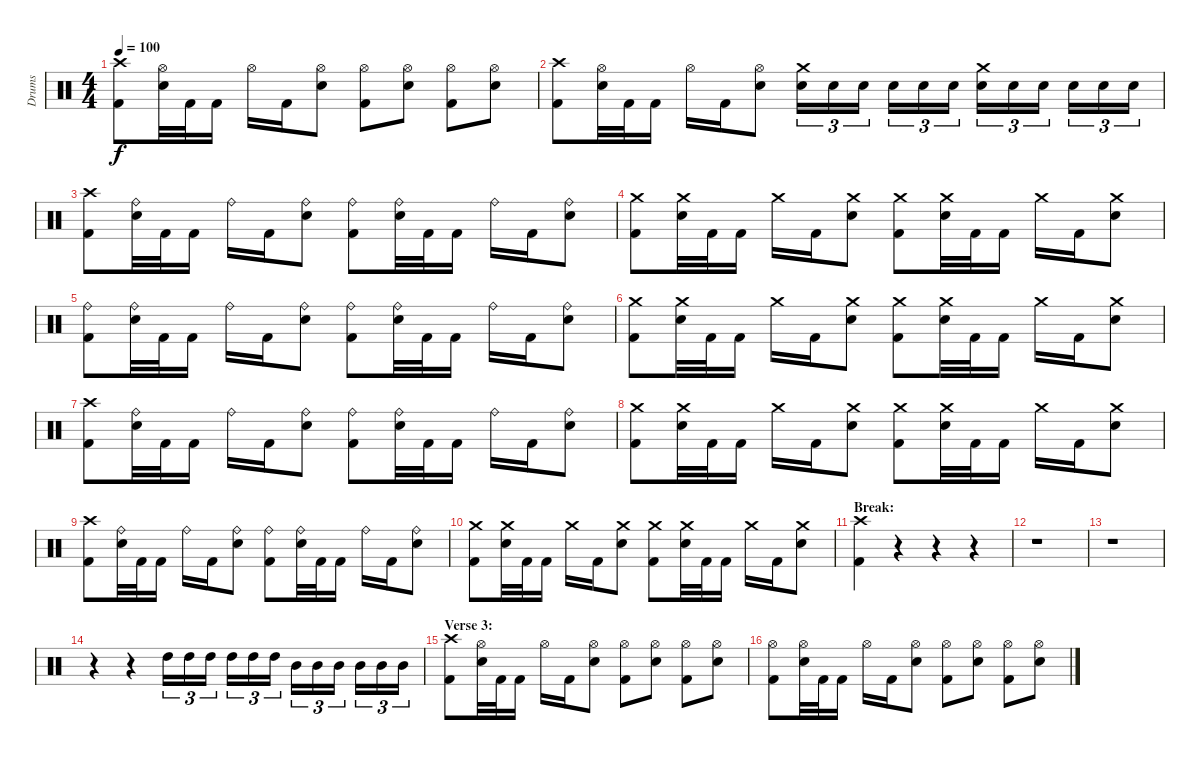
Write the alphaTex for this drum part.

\track ("Drums" "Drums") {instrument percussion}
\staff {score}
\articulation defaults
\ts (4 4)
\tempo 100
\clef neutral
\ks c
("Crash high (hit)" "Kick (hit) 2").8{dy f} ("Hi-Hat (open)" "Electric Snare (hit)").32 "Kick (hit) 2".32 "Kick (hit) 2".16 "Hi-Hat (open)".16 "Kick (hit) 2".16 ("Hi-Hat (open)" "Electric Snare (hit)").8 ("Hi-Hat (open)" "Kick (hit) 2").8 ("Hi-Hat (open)" "Electric Snare (hit)").8 ("Hi-Hat (open)" "Kick (hit) 2").8 ("Hi-Hat (open)" "Electric Snare (hit)").8 |
("Crash high (hit)" "Kick (hit) 2").8 ("Hi-Hat (open)" "Electric Snare (hit)").32 "Kick (hit) 2".32 "Kick (hit) 2".16 "Hi-Hat (open)".16 "Kick (hit) 2".16 ("Hi-Hat (open)" "Electric Snare (hit)").8 ("Crash medium (hit)" "Electric Snare (hit)").16{tu (3 2)} "Electric Snare (hit)".16{tu (3 2)} "Electric Snare (hit)".16{tu (3 2)} "Electric Snare (hit)".16{tu (3 2)} "Electric Snare (hit)".16{tu (3 2)} "Electric Snare (hit)".16{tu (3 2)} ("Crash medium (hit)" "Electric Snare (hit)").16{tu (3 2)} "Electric Snare (hit)".16{tu (3 2)} "Electric Snare (hit)".16{tu (3 2)} "Electric Snare (hit)".16{tu (3 2)} "Electric Snare (hit)".16{tu (3 2)} "Electric Snare (hit)".16{tu (3 2)} |
("Crash high (hit)" "Kick (hit) 2").8 ("Ride (bell)" "Electric Snare (hit)").32 "Kick (hit) 2".32 "Kick (hit) 2".16 "Ride (bell)".16 "Kick (hit) 2".16 ("Ride (bell)" "Electric Snare (hit)").8 ("Ride (bell)" "Kick (hit) 2").8 ("Ride (bell)" "Electric Snare (hit)").32 "Kick (hit) 2".32 "Kick (hit) 2".16 "Ride (bell)".16 "Kick (hit) 2".16 ("Ride (bell)" "Electric Snare (hit)").8 |
("Crash medium (hit)" "Kick (hit) 2").8 ("Crash medium (hit)" "Electric Snare (hit)").32 "Kick (hit) 2".32 "Kick (hit) 2".16 "Crash medium (hit)".16 "Kick (hit) 2".16 ("Crash medium (hit)" "Electric Snare (hit)").8 ("Crash medium (hit)" "Kick (hit) 2").8 ("Crash medium (hit)" "Electric Snare (hit)").32 "Kick (hit) 2".32 "Kick (hit) 2".16 "Crash medium (hit)".16 "Kick (hit) 2".16 ("Crash medium (hit)" "Electric Snare (hit)").8 |
("Ride (bell)" "Kick (hit) 2").8 ("Ride (bell)" "Electric Snare (hit)").32 "Kick (hit) 2".32 "Kick (hit) 2".16 "Ride (bell)".16 "Kick (hit) 2".16 ("Ride (bell)" "Electric Snare (hit)").8 ("Ride (bell)" "Kick (hit) 2").8 ("Ride (bell)" "Electric Snare (hit)").32 "Kick (hit) 2".32 "Kick (hit) 2".16 "Ride (bell)".16 "Kick (hit) 2".16 ("Ride (bell)" "Electric Snare (hit)").8 |
("Crash medium (hit)" "Kick (hit) 2").8 ("Crash medium (hit)" "Electric Snare (hit)").32 "Kick (hit) 2".32 "Kick (hit) 2".16 "Crash medium (hit)".16 "Kick (hit) 2".16 ("Crash medium (hit)" "Electric Snare (hit)").8 ("Crash medium (hit)" "Kick (hit) 2").8 ("Crash medium (hit)" "Electric Snare (hit)").32 "Kick (hit) 2".32 "Kick (hit) 2".16 "Crash medium (hit)".16 "Kick (hit) 2".16 ("Crash medium (hit)" "Electric Snare (hit)").8 |
("Crash high (hit)" "Kick (hit) 2").8 ("Ride (bell)" "Electric Snare (hit)").32 "Kick (hit) 2".32 "Kick (hit) 2".16 "Ride (bell)".16 "Kick (hit) 2".16 ("Ride (bell)" "Electric Snare (hit)").8 ("Ride (bell)" "Kick (hit) 2").8 ("Ride (bell)" "Electric Snare (hit)").32 "Kick (hit) 2".32 "Kick (hit) 2".16 "Ride (bell)".16 "Kick (hit) 2".16 ("Ride (bell)" "Electric Snare (hit)").8 |
("Crash medium (hit)" "Kick (hit) 2").8 ("Crash medium (hit)" "Electric Snare (hit)").32 "Kick (hit) 2".32 "Kick (hit) 2".16 "Crash medium (hit)".16 "Kick (hit) 2".16 ("Crash medium (hit)" "Electric Snare (hit)").8 ("Crash medium (hit)" "Kick (hit) 2").8 ("Crash medium (hit)" "Electric Snare (hit)").32 "Kick (hit) 2".32 "Kick (hit) 2".16 "Crash medium (hit)".16 "Kick (hit) 2".16 ("Crash medium (hit)" "Electric Snare (hit)").8 |
("Crash high (hit)" "Kick (hit) 2").8 ("Ride (bell)" "Electric Snare (hit)").32 "Kick (hit) 2".32 "Kick (hit) 2".16 "Ride (bell)".16 "Kick (hit) 2".16 ("Ride (bell)" "Electric Snare (hit)").8 ("Ride (bell)" "Kick (hit) 2").8 ("Ride (bell)" "Electric Snare (hit)").32 "Kick (hit) 2".32 "Kick (hit) 2".16 "Ride (bell)".16 "Kick (hit) 2".16 ("Ride (bell)" "Electric Snare (hit)").8 |
("Crash medium (hit)" "Kick (hit) 2").8 ("Crash medium (hit)" "Electric Snare (hit)").32 "Kick (hit) 2".32 "Kick (hit) 2".16 "Crash medium (hit)".16 "Kick (hit) 2".16 ("Crash medium (hit)" "Electric Snare (hit)").8 ("Crash medium (hit)" "Kick (hit) 2").8 ("Crash medium (hit)" "Electric Snare (hit)").32 "Kick (hit) 2".32 "Kick (hit) 2".16 "Crash medium (hit)".16 "Kick (hit) 2".16 ("Crash medium (hit)" "Electric Snare (hit)").8 |
\section ("" "Break:")
("Crash high (hit)" "Kick (hit) 2").4 r.4 r.4 r.4 |
r.1 |
r.1 |
r.4 r.4 "High Tom (hit)".16{tu (3 2)} "High Tom (hit)".16{tu (3 2)} "High Tom (hit)".16{tu (3 2)} "High Tom (hit)".16{tu (3 2)} "High Tom (hit)".16{tu (3 2)} "High Tom (hit)".16{tu (3 2)} "Mid Tom (hit)".16{tu (3 2)} "Mid Tom (hit)".16{tu (3 2)} "Mid Tom (hit)".16{tu (3 2)} "Mid Tom (hit)".16{tu (3 2)} "Mid Tom (hit)".16{tu (3 2)} "Mid Tom (hit)".16{tu (3 2)} |
\section ("" "Verse 3:")
("Crash high (hit)" "Kick (hit) 2").8 ("Hi-Hat (open)" "Electric Snare (hit)").32 "Kick (hit) 2".32 "Kick (hit) 2".16 "Hi-Hat (open)".16 "Kick (hit) 2".16 ("Hi-Hat (open)" "Electric Snare (hit)").8 ("Hi-Hat (open)" "Kick (hit) 2").8 ("Hi-Hat (open)" "Electric Snare (hit)").8 ("Hi-Hat (open)" "Kick (hit) 2").8 ("Hi-Hat (open)" "Electric Snare (hit)").8 |
("Hi-Hat (open)" "Kick (hit) 2").8 ("Hi-Hat (open)" "Electric Snare (hit)").32 "Kick (hit) 2".32 "Kick (hit) 2".16 "Hi-Hat (open)".16 "Kick (hit) 2".16 ("Hi-Hat (open)" "Electric Snare (hit)").8 ("Hi-Hat (open)" "Kick (hit) 2").8 ("Hi-Hat (open)" "Electric Snare (hit)").8 ("Hi-Hat (open)" "Kick (hit) 2").8 ("Hi-Hat (open)" "Electric Snare (hit)").8
